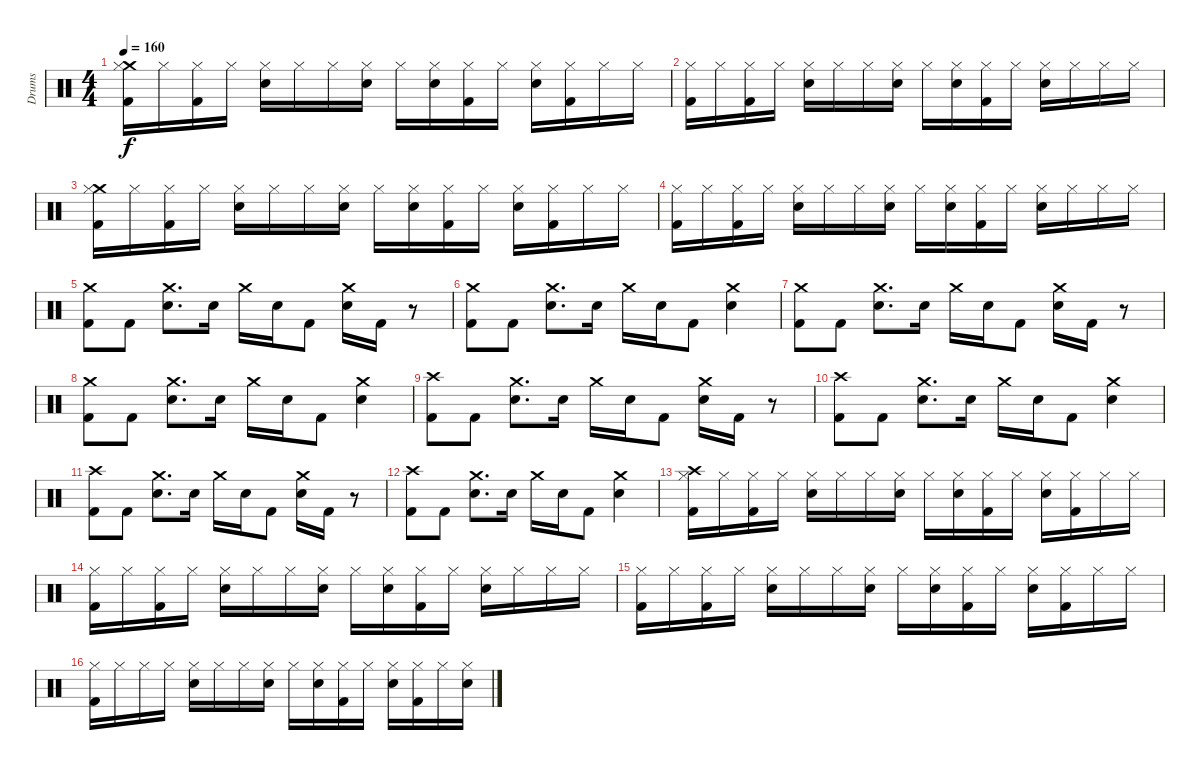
\track ("Drums" "Drums") {instrument percussion}
\staff {score}
\articulation defaults
\ts (4 4)
\tempo 160
\clef neutral
\ks c
("Crash medium (hit)" "Kick (hit) 2" "Hi-Hat (closed)").16{dy f} "Hi-Hat (closed)".16 ("Kick (hit) 2" "Hi-Hat (closed)").16 "Hi-Hat (closed)".16 ("Hi-Hat (closed)" "Electric Snare (hit)").16 "Hi-Hat (closed)".16 "Hi-Hat (closed)".16 ("Electric Snare (hit)" "Hi-Hat (closed)").16 "Hi-Hat (closed)".16 ("Electric Snare (hit)" "Hi-Hat (closed)").16 ("Kick (hit) 2" "Hi-Hat (closed)").16 "Hi-Hat (closed)".16 ("Electric Snare (hit)" "Hi-Hat (closed)").16 ("Kick (hit) 2" "Hi-Hat (closed)").16 "Hi-Hat (closed)".16 "Hi-Hat (closed)".16 |
("Kick (hit) 2" "Hi-Hat (closed)").16 "Hi-Hat (closed)".16 ("Kick (hit) 2" "Hi-Hat (closed)").16 "Hi-Hat (closed)".16 ("Hi-Hat (closed)" "Electric Snare (hit)").16 "Hi-Hat (closed)".16 "Hi-Hat (closed)".16 ("Electric Snare (hit)" "Hi-Hat (closed)").16 "Hi-Hat (closed)".16 ("Electric Snare (hit)" "Hi-Hat (closed)").16 ("Kick (hit) 2" "Hi-Hat (closed)").16 "Hi-Hat (closed)".16 ("Electric Snare (hit)" "Hi-Hat (closed)").16 "Hi-Hat (closed)".16 "Hi-Hat (closed)".16 "Hi-Hat (closed)".16 |
("Crash medium (hit)" "Kick (hit) 2" "Hi-Hat (closed)").16 "Hi-Hat (closed)".16 ("Kick (hit) 2" "Hi-Hat (closed)").16 "Hi-Hat (closed)".16 ("Hi-Hat (closed)" "Electric Snare (hit)").16 "Hi-Hat (closed)".16 "Hi-Hat (closed)".16 ("Electric Snare (hit)" "Hi-Hat (closed)").16 "Hi-Hat (closed)".16 ("Electric Snare (hit)" "Hi-Hat (closed)").16 ("Kick (hit) 2" "Hi-Hat (closed)").16 "Hi-Hat (closed)".16 ("Electric Snare (hit)" "Hi-Hat (closed)").16 ("Kick (hit) 2" "Hi-Hat (closed)").16 "Hi-Hat (closed)".16 "Hi-Hat (closed)".16 |
("Kick (hit) 2" "Hi-Hat (closed)").16 "Hi-Hat (closed)".16 ("Kick (hit) 2" "Hi-Hat (closed)").16 "Hi-Hat (closed)".16 ("Hi-Hat (closed)" "Electric Snare (hit)").16 "Hi-Hat (closed)".16 "Hi-Hat (closed)".16 ("Electric Snare (hit)" "Hi-Hat (closed)").16 "Hi-Hat (closed)".16 ("Electric Snare (hit)" "Hi-Hat (closed)").16 ("Kick (hit) 2" "Hi-Hat (closed)").16 "Hi-Hat (closed)".16 ("Electric Snare (hit)" "Hi-Hat (closed)").16 "Hi-Hat (closed)".16 "Hi-Hat (closed)".16 "Hi-Hat (closed)".16 |
("Crash medium (hit)" "Kick (hit) 2").8 "Kick (hit) 2".8 ("Crash medium (hit)" "Electric Snare (hit)").8{d} "Electric Snare (hit)".16 "Crash medium (hit)".16 "Electric Snare (hit)".16 "Kick (hit) 2".8 ("Crash medium (hit)" "Electric Snare (hit)").16 "Kick (hit) 2".16 r.8 |
("Crash medium (hit)" "Kick (hit) 2").8 "Kick (hit) 2".8 ("Crash medium (hit)" "Electric Snare (hit)").8{d} "Electric Snare (hit)".16 "Crash medium (hit)".16 "Electric Snare (hit)".16 "Kick (hit) 2".8 ("Crash medium (hit)" "Electric Snare (hit)").4 |
("Crash medium (hit)" "Kick (hit) 2").8 "Kick (hit) 2".8 ("Crash medium (hit)" "Electric Snare (hit)").8{d} "Electric Snare (hit)".16 "Crash medium (hit)".16 "Electric Snare (hit)".16 "Kick (hit) 2".8 ("Crash medium (hit)" "Electric Snare (hit)").16 "Kick (hit) 2".16 r.8 |
("Crash medium (hit)" "Kick (hit) 2").8 "Kick (hit) 2".8 ("Crash medium (hit)" "Electric Snare (hit)").8{d} "Electric Snare (hit)".16 "Crash medium (hit)".16 "Electric Snare (hit)".16 "Kick (hit) 2".8 ("Crash medium (hit)" "Electric Snare (hit)").4 |
("Crash high (hit)" "Kick (hit) 2").8 "Kick (hit) 2".8 ("Crash medium (hit)" "Electric Snare (hit)").8{d} "Electric Snare (hit)".16 "Crash medium (hit)".16 "Electric Snare (hit)".16 "Kick (hit) 2".8 ("Crash medium (hit)" "Electric Snare (hit)").16 "Kick (hit) 2".16 r.8 |
("Crash high (hit)" "Kick (hit) 2").8 "Kick (hit) 2".8 ("Crash medium (hit)" "Electric Snare (hit)").8{d} "Electric Snare (hit)".16 "Crash medium (hit)".16 "Electric Snare (hit)".16 "Kick (hit) 2".8 ("Crash medium (hit)" "Electric Snare (hit)").4 |
("Crash high (hit)" "Kick (hit) 2").8 "Kick (hit) 2".8 ("Crash medium (hit)" "Electric Snare (hit)").8{d} "Electric Snare (hit)".16 "Crash medium (hit)".16 "Electric Snare (hit)".16 "Kick (hit) 2".8 ("Crash medium (hit)" "Electric Snare (hit)").16 "Kick (hit) 2".16 r.8 |
("Crash high (hit)" "Kick (hit) 2").8 "Kick (hit) 2".8 ("Crash medium (hit)" "Electric Snare (hit)").8{d} "Electric Snare (hit)".16 "Crash medium (hit)".16 "Electric Snare (hit)".16 "Kick (hit) 2".8 ("Crash medium (hit)" "Electric Snare (hit)").4 |
("Crash high (hit)" "Kick (hit) 2" "Hi-Hat (closed)").16 "Hi-Hat (closed)".16 ("Kick (hit) 2" "Hi-Hat (closed)").16 "Hi-Hat (closed)".16 ("Hi-Hat (closed)" "Electric Snare (hit)").16 "Hi-Hat (closed)".16 "Hi-Hat (closed)".16 ("Electric Snare (hit)" "Hi-Hat (closed)").16 "Hi-Hat (closed)".16 ("Electric Snare (hit)" "Hi-Hat (closed)").16 ("Kick (hit) 2" "Hi-Hat (closed)").16 "Hi-Hat (closed)".16 ("Electric Snare (hit)" "Hi-Hat (closed)").16 ("Kick (hit) 2" "Hi-Hat (closed)").16 "Hi-Hat (closed)".16 "Hi-Hat (closed)".16 |
("Kick (hit) 2" "Hi-Hat (closed)").16 "Hi-Hat (closed)".16 ("Kick (hit) 2" "Hi-Hat (closed)").16 "Hi-Hat (closed)".16 ("Hi-Hat (closed)" "Electric Snare (hit)").16 "Hi-Hat (closed)".16 "Hi-Hat (closed)".16 ("Electric Snare (hit)" "Hi-Hat (closed)").16 "Hi-Hat (closed)".16 ("Electric Snare (hit)" "Hi-Hat (closed)").16 ("Kick (hit) 2" "Hi-Hat (closed)").16 "Hi-Hat (closed)".16 ("Electric Snare (hit)" "Hi-Hat (closed)").16 "Hi-Hat (closed)".16 "Hi-Hat (closed)".16 "Hi-Hat (closed)".16 |
("Kick (hit) 2" "Hi-Hat (closed)").16 "Hi-Hat (closed)".16 ("Kick (hit) 2" "Hi-Hat (closed)").16 "Hi-Hat (closed)".16 ("Hi-Hat (closed)" "Electric Snare (hit)").16 "Hi-Hat (closed)".16 "Hi-Hat (closed)".16 ("Electric Snare (hit)" "Hi-Hat (closed)").16 "Hi-Hat (closed)".16 ("Electric Snare (hit)" "Hi-Hat (closed)").16 ("Kick (hit) 2" "Hi-Hat (closed)").16 "Hi-Hat (closed)".16 ("Electric Snare (hit)" "Hi-Hat (closed)").16 ("Kick (hit) 2" "Hi-Hat (closed)").16 "Hi-Hat (closed)".16 "Hi-Hat (closed)".16 |
("Kick (hit) 2" "Hi-Hat (closed)").16 "Hi-Hat (closed)".16 "Hi-Hat (closed)".16 "Hi-Hat (closed)".16 ("Hi-Hat (closed)" "Electric Snare (hit)").16 "Hi-Hat (closed)".16 "Hi-Hat (closed)".16 ("Electric Snare (hit)" "Hi-Hat (closed)").16 "Hi-Hat (closed)".16 ("Electric Snare (hit)" "Hi-Hat (closed)").16 ("Kick (hit) 2" "Hi-Hat (closed)").16 "Hi-Hat (closed)".16 ("Electric Snare (hit)" "Hi-Hat (closed)").16 ("Kick (hit) 2" "Hi-Hat (closed)").16 "Hi-Hat (closed)".16 ("Electric Snare (hit)" "Hi-Hat (closed)").16
